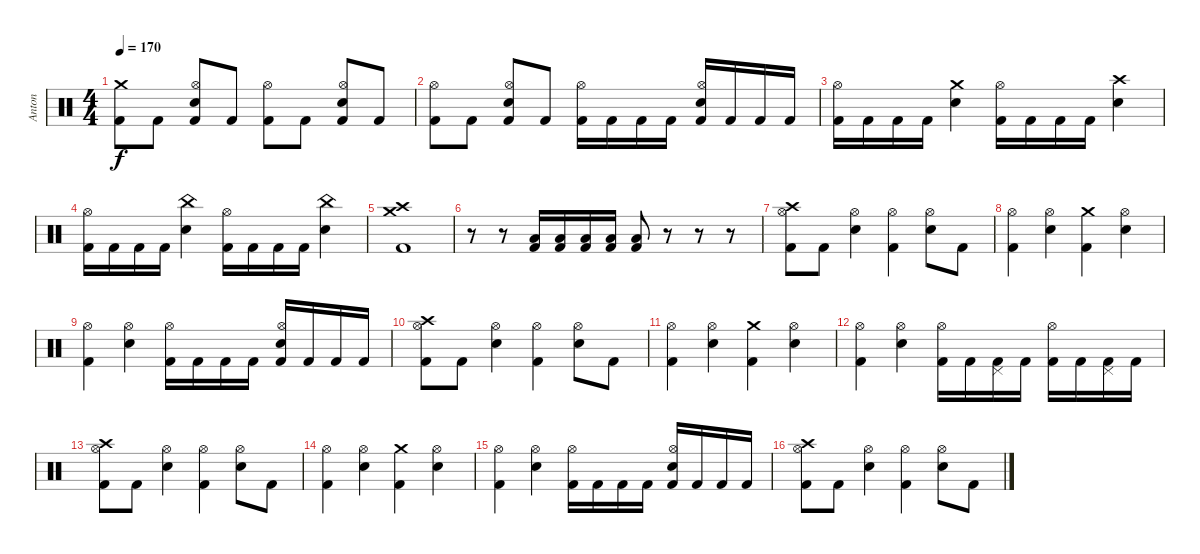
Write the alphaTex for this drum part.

\track ("Anton" "Anton") {instrument percussion}
\staff
\articulation defaults
\ts (4 4)
\tempo 170
\clef neutral
\ks c
("Crash medium (hit)" "Kick (hit) 2").8{dy f} "Kick (hit) 2".8 ("Hi-Hat (open)" "Electric Snare (hit)" "Kick (hit) 2").8 "Kick (hit) 2".8 ("Hi-Hat (open)" "Kick (hit) 2").8 "Kick (hit) 2".8 ("Hi-Hat (open)" "Electric Snare (hit)" "Kick (hit) 2").8 "Kick (hit) 2".8 |
("Hi-Hat (open)" "Kick (hit) 2").8 "Kick (hit) 2".8 ("Hi-Hat (open)" "Electric Snare (hit)" "Kick (hit) 2").8 "Kick (hit) 2".8 ("Hi-Hat (open)" "Kick (hit) 2").16 "Kick (hit) 2".16 "Kick (hit) 2".16 "Kick (hit) 2".16 ("Hi-Hat (open)" "Electric Snare (hit)" "Kick (hit) 2").16 "Kick (hit) 2".16 "Kick (hit) 2".16 "Kick (hit) 2".16 |
("Hi-Hat (open)" "Kick (hit) 2").16 "Kick (hit) 2".16 "Kick (hit) 2".16 "Kick (hit) 2".16 ("Crash medium (hit)" "Electric Snare (hit)").4 ("Hi-Hat (open)" "Kick (hit) 2").16 "Kick (hit) 2".16 "Kick (hit) 2".16 "Kick (hit) 2".16 ("Crash high (hit)" "Electric Snare (hit)").4 |
("Hi-Hat (open)" "Kick (hit) 2").16 "Kick (hit) 2".16 "Kick (hit) 2".16 "Kick (hit) 2".16 ("China (hit)" "Electric Snare (hit)").4 ("Hi-Hat (open)" "Kick (hit) 2").16 "Kick (hit) 2".16 "Kick (hit) 2".16 "Kick (hit) 2".16 ("China (hit)" "Electric Snare (hit)").4 |
("Crash medium (hit)" "Crash high (hit)" "Kick (hit) 2").1 |
r.8 r.8 ("Low Floor Tom (hit)" "Kick (hit) 2").16 ("Low Floor Tom (hit)" "Kick (hit) 2").16 ("Low Floor Tom (hit)" "Kick (hit) 2").16 ("Low Floor Tom (hit)" "Kick (hit) 2").16 ("Low Floor Tom (hit)" "Kick (hit) 2").8 r.8 r.8 r.8 |
("Crash high (hit)" "Hi-Hat (open)" "Kick (hit) 2").8 "Kick (hit) 2".8 ("Hi-Hat (open)" "Electric Snare (hit)").4 ("Hi-Hat (open)" "Kick (hit) 2").4 ("Hi-Hat (open)" "Electric Snare (hit)").8 "Kick (hit) 2".8 |
("Hi-Hat (open)" "Kick (hit) 2").4 ("Hi-Hat (open)" "Electric Snare (hit)").4 ("Crash medium (hit)" "Kick (hit) 2").4 ("Hi-Hat (open)" "Electric Snare (hit)").4 |
("Hi-Hat (open)" "Kick (hit) 2").4 ("Hi-Hat (open)" "Electric Snare (hit)").4 ("Hi-Hat (open)" "Kick (hit) 2").16 "Kick (hit) 2".16 "Kick (hit) 2".16 "Kick (hit) 2".16 ("Hi-Hat (open)" "Electric Snare (hit)" "Kick (hit) 2").16 "Kick (hit) 2".16 "Kick (hit) 2".16 "Kick (hit) 2".16 |
("Crash high (hit)" "Hi-Hat (open)" "Kick (hit) 2").8 "Kick (hit) 2".8 ("Hi-Hat (open)" "Electric Snare (hit)").4 ("Hi-Hat (open)" "Kick (hit) 2").4 ("Hi-Hat (open)" "Electric Snare (hit)").8 "Kick (hit) 2".8 |
("Hi-Hat (open)" "Kick (hit) 2").4 ("Hi-Hat (open)" "Electric Snare (hit)").4 ("Crash medium (hit)" "Kick (hit) 2").4 ("Hi-Hat (open)" "Electric Snare (hit)").4 |
("Hi-Hat (open)" "Kick (hit) 2").4 ("Hi-Hat (open)" "Electric Snare (hit)").4 ("Hi-Hat (open)" "Kick (hit) 2").16 "Kick (hit) 2".16 ("Pedal Hi-Hat (hit)" "Kick (hit) 2").16 "Kick (hit) 2".16 ("Hi-Hat (open)" "Kick (hit) 2").16 "Kick (hit) 2".16 ("Pedal Hi-Hat (hit)" "Kick (hit) 2").16 "Kick (hit) 2".16 |
("Crash high (hit)" "Hi-Hat (open)" "Kick (hit) 2").8 "Kick (hit) 2".8 ("Hi-Hat (open)" "Electric Snare (hit)").4 ("Hi-Hat (open)" "Kick (hit) 2").4 ("Hi-Hat (open)" "Electric Snare (hit)").8 "Kick (hit) 2".8 |
("Hi-Hat (open)" "Kick (hit) 2").4 ("Hi-Hat (open)" "Electric Snare (hit)").4 ("Crash medium (hit)" "Kick (hit) 2").4 ("Hi-Hat (open)" "Electric Snare (hit)").4 |
("Hi-Hat (open)" "Kick (hit) 2").4 ("Hi-Hat (open)" "Electric Snare (hit)").4 ("Hi-Hat (open)" "Kick (hit) 2").16 "Kick (hit) 2".16 "Kick (hit) 2".16 "Kick (hit) 2".16 ("Hi-Hat (open)" "Electric Snare (hit)" "Kick (hit) 2").16 "Kick (hit) 2".16 "Kick (hit) 2".16 "Kick (hit) 2".16 |
("Crash high (hit)" "Hi-Hat (open)" "Kick (hit) 2").8 "Kick (hit) 2".8 ("Hi-Hat (open)" "Electric Snare (hit)").4 ("Hi-Hat (open)" "Kick (hit) 2").4 ("Hi-Hat (open)" "Electric Snare (hit)").8 "Kick (hit) 2".8
